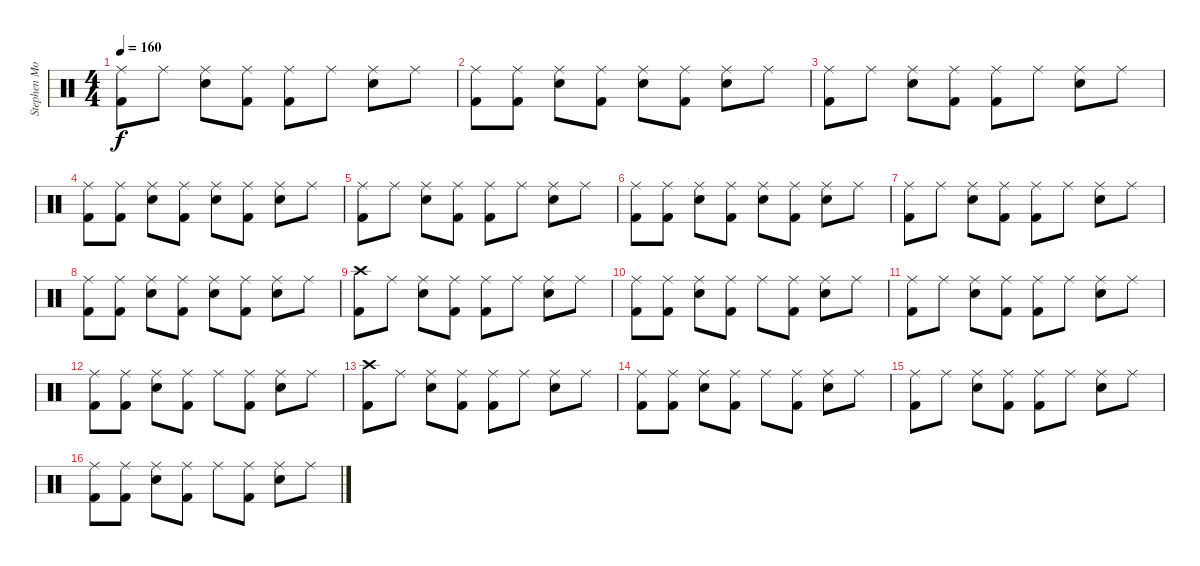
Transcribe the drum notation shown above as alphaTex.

\track ("Stephen Morris - Drums" "Stephen Mo") {instrument percussion}
\staff {score}
\articulation defaults
\ts (4 4)
\tempo 160
\clef neutral
\ks c
("Ride (middle)" "Kick (hit) 2").8{dy f} "Ride (middle)".8 ("Ride (middle)" "Snare (hit) 2").8 ("Ride (middle)" "Kick (hit) 2").8 ("Ride (middle)" "Kick (hit) 2").8 "Ride (middle)".8 ("Ride (middle)" "Snare (hit) 2").8 "Ride (middle)".8 |
("Ride (middle)" "Kick (hit) 2").8 ("Ride (middle)" "Kick (hit) 2").8 ("Ride (middle)" "Snare (hit) 2").8 ("Ride (middle)" "Kick (hit) 2").8 ("Ride (middle)" "Snare (hit) 2").8 ("Ride (middle)" "Kick (hit) 2").8 ("Ride (middle)" "Snare (hit) 2").8 "Ride (middle)".8 |
("Ride (middle)" "Kick (hit) 2").8 "Ride (middle)".8 ("Ride (middle)" "Snare (hit) 2").8 ("Ride (middle)" "Kick (hit) 2").8 ("Ride (middle)" "Kick (hit) 2").8 "Ride (middle)".8 ("Ride (middle)" "Snare (hit) 2").8 "Ride (middle)".8 |
("Ride (middle)" "Kick (hit) 2").8 ("Ride (middle)" "Kick (hit) 2").8 ("Ride (middle)" "Snare (hit) 2").8 ("Ride (middle)" "Kick (hit) 2").8 ("Ride (middle)" "Snare (hit) 2").8 ("Ride (middle)" "Kick (hit) 2").8 ("Ride (middle)" "Snare (hit) 2").8 "Ride (middle)".8 |
("Ride (middle)" "Kick (hit) 2").8 "Ride (middle)".8 ("Ride (middle)" "Snare (hit) 2").8 ("Ride (middle)" "Kick (hit) 2").8 ("Ride (middle)" "Kick (hit) 2").8 "Ride (middle)".8 ("Ride (middle)" "Snare (hit) 2").8 "Ride (middle)".8 |
("Ride (middle)" "Kick (hit) 2").8 ("Ride (middle)" "Kick (hit) 2").8 ("Ride (middle)" "Snare (hit) 2").8 ("Ride (middle)" "Kick (hit) 2").8 ("Ride (middle)" "Snare (hit) 2").8 ("Ride (middle)" "Kick (hit) 2").8 ("Ride (middle)" "Snare (hit) 2").8 "Ride (middle)".8 |
("Ride (middle)" "Kick (hit) 2").8 "Ride (middle)".8 ("Ride (middle)" "Snare (hit) 2").8 ("Ride (middle)" "Kick (hit) 2").8 ("Ride (middle)" "Kick (hit) 2").8 "Ride (middle)".8 ("Ride (middle)" "Snare (hit) 2").8 "Ride (middle)".8 |
("Ride (middle)" "Kick (hit) 2").8 ("Ride (middle)" "Kick (hit) 2").8 ("Ride (middle)" "Snare (hit) 2").8 ("Ride (middle)" "Kick (hit) 2").8 ("Ride (middle)" "Snare (hit) 2").8 ("Ride (middle)" "Kick (hit) 2").8 ("Ride (middle)" "Snare (hit) 2").8 "Ride (middle)".8 |
("Crash high (hit)" "Kick (hit) 2").8 "Ride (middle)".8 ("Ride (middle)" "Snare (hit) 2").8 ("Ride (middle)" "Kick (hit) 2").8 ("Ride (middle)" "Kick (hit) 2").8 "Ride (middle)".8 ("Ride (middle)" "Snare (hit) 2").8 "Ride (middle)".8 |
("Ride (middle)" "Kick (hit) 2").8 ("Ride (middle)" "Kick (hit) 2").8 ("Ride (middle)" "Snare (hit) 2").8 ("Ride (middle)" "Kick (hit) 2").8 "Ride (middle)".8 ("Ride (middle)" "Kick (hit) 2").8 ("Ride (middle)" "Snare (hit) 2").8 "Ride (middle)".8 |
("Ride (middle)" "Kick (hit) 2").8 "Ride (middle)".8 ("Ride (middle)" "Snare (hit) 2").8 ("Ride (middle)" "Kick (hit) 2").8 ("Ride (middle)" "Kick (hit) 2").8 "Ride (middle)".8 ("Ride (middle)" "Snare (hit) 2").8 "Ride (middle)".8 |
("Ride (middle)" "Kick (hit) 2").8 ("Ride (middle)" "Kick (hit) 2").8 ("Ride (middle)" "Snare (hit) 2").8 ("Ride (middle)" "Kick (hit) 2").8 "Ride (middle)".8 ("Ride (middle)" "Kick (hit) 2").8 ("Ride (middle)" "Snare (hit) 2").8 "Ride (middle)".8 |
("Crash high (hit)" "Kick (hit) 2").8 "Ride (middle)".8 ("Ride (middle)" "Snare (hit) 2").8 ("Ride (middle)" "Kick (hit) 2").8 ("Ride (middle)" "Kick (hit) 2").8 "Ride (middle)".8 ("Ride (middle)" "Snare (hit) 2").8 "Ride (middle)".8 |
("Ride (middle)" "Kick (hit) 2").8 ("Ride (middle)" "Kick (hit) 2").8 ("Ride (middle)" "Snare (hit) 2").8 ("Ride (middle)" "Kick (hit) 2").8 "Ride (middle)".8 ("Ride (middle)" "Kick (hit) 2").8 ("Ride (middle)" "Snare (hit) 2").8 "Ride (middle)".8 |
("Ride (middle)" "Kick (hit) 2").8 "Ride (middle)".8 ("Ride (middle)" "Snare (hit) 2").8 ("Ride (middle)" "Kick (hit) 2").8 ("Ride (middle)" "Kick (hit) 2").8 "Ride (middle)".8 ("Ride (middle)" "Snare (hit) 2").8 "Ride (middle)".8 |
("Ride (middle)" "Kick (hit) 2").8 ("Ride (middle)" "Kick (hit) 2").8 ("Ride (middle)" "Snare (hit) 2").8 ("Ride (middle)" "Kick (hit) 2").8 "Ride (middle)".8 ("Ride (middle)" "Kick (hit) 2").8 ("Ride (middle)" "Snare (hit) 2").8 "Ride (middle)".8
